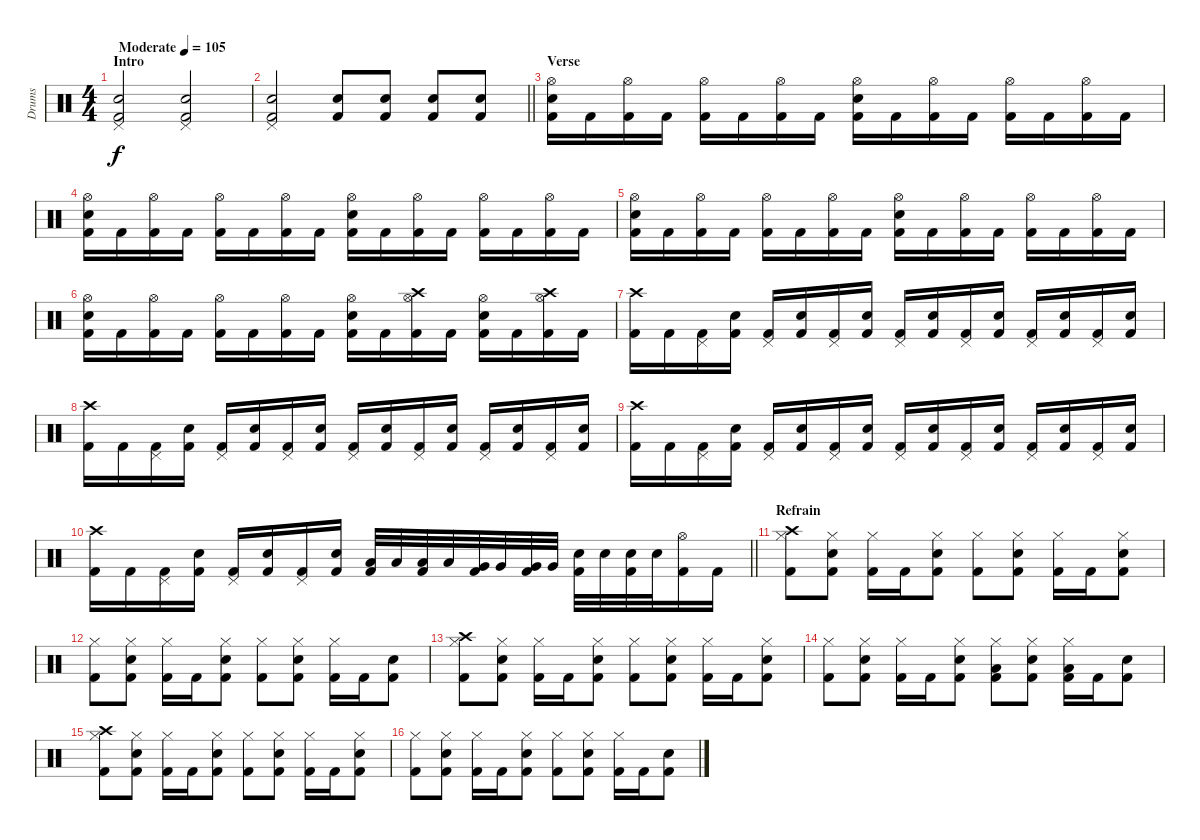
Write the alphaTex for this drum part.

\track ("Drums" "Drums") {instrument percussion}
\staff {score}
\articulation defaults
\ts (4 4)
\section ("" "Intro")
\tempo (105 "Moderate")
\clef neutral
\ks c
("Pedal Hi-Hat (hit)" "Snare (hit) 2" "Kick (hit) 2").2{dy f} ("Pedal Hi-Hat (hit)" "Snare (hit) 2" "Kick (hit) 2").2 |
\barLineRight lightlight
("Pedal Hi-Hat (hit)" "Snare (hit) 2" "Kick (hit) 2").2 ("Electric Snare (hit)" "Kick (hit) 2").8 ("Electric Snare (hit)" "Kick (hit) 2").8 ("Electric Snare (hit)" "Kick (hit) 2").8 ("Electric Snare (hit)" "Kick (hit) 2").8 |
\section ("" "Verse")
("Hi-Hat (open)" "Electric Snare (hit)" "Kick (hit) 2").16 "Kick (hit) 2".16 ("Hi-Hat (open)" "Kick (hit) 2").16 "Kick (hit) 2".16 ("Hi-Hat (open)" "Kick (hit) 2").16 "Kick (hit) 2".16 ("Hi-Hat (open)" "Kick (hit) 2").16 "Kick (hit) 2".16 ("Hi-Hat (open)" "Electric Snare (hit)" "Kick (hit) 2").16 "Kick (hit) 2".16 ("Hi-Hat (open)" "Kick (hit) 2").16 "Kick (hit) 2".16 ("Hi-Hat (open)" "Kick (hit) 2").16 "Kick (hit) 2".16 ("Hi-Hat (open)" "Kick (hit) 2").16 "Kick (hit) 2".16 |
("Hi-Hat (open)" "Electric Snare (hit)" "Kick (hit) 2").16 "Kick (hit) 2".16 ("Hi-Hat (open)" "Kick (hit) 2").16 "Kick (hit) 2".16 ("Hi-Hat (open)" "Kick (hit) 2").16 "Kick (hit) 2".16 ("Hi-Hat (open)" "Kick (hit) 2").16 "Kick (hit) 2".16 ("Hi-Hat (open)" "Electric Snare (hit)" "Kick (hit) 2").16 "Kick (hit) 2".16 ("Hi-Hat (open)" "Kick (hit) 2").16 "Kick (hit) 2".16 ("Hi-Hat (open)" "Kick (hit) 2").16 "Kick (hit) 2".16 ("Hi-Hat (open)" "Kick (hit) 2").16 "Kick (hit) 2".16 |
("Hi-Hat (open)" "Electric Snare (hit)" "Kick (hit) 2").16 "Kick (hit) 2".16 ("Hi-Hat (open)" "Kick (hit) 2").16 "Kick (hit) 2".16 ("Hi-Hat (open)" "Kick (hit) 2").16 "Kick (hit) 2".16 ("Hi-Hat (open)" "Kick (hit) 2").16 "Kick (hit) 2".16 ("Hi-Hat (open)" "Electric Snare (hit)" "Kick (hit) 2").16 "Kick (hit) 2".16 ("Hi-Hat (open)" "Kick (hit) 2").16 "Kick (hit) 2".16 ("Hi-Hat (open)" "Kick (hit) 2").16 "Kick (hit) 2".16 ("Hi-Hat (open)" "Kick (hit) 2").16 "Kick (hit) 2".16 |
("Hi-Hat (open)" "Electric Snare (hit)" "Kick (hit) 2").16 "Kick (hit) 2".16 ("Hi-Hat (open)" "Kick (hit) 2").16 "Kick (hit) 2".16 ("Hi-Hat (open)" "Kick (hit) 2").16 "Kick (hit) 2".16 ("Hi-Hat (open)" "Kick (hit) 2").16 "Kick (hit) 2".16 ("Hi-Hat (open)" "Electric Snare (hit)" "Kick (hit) 2").16 "Kick (hit) 2".16 ("Hi-Hat (open)" "Crash high (hit)" "Kick (hit) 2").16 "Kick (hit) 2".16 ("Hi-Hat (open)" "Electric Snare (hit)" "Kick (hit) 2").16 "Kick (hit) 2".16 ("Hi-Hat (open)" "Crash high (hit)" "Kick (hit) 2").16 "Kick (hit) 2".16 |
("Crash high (hit)" "Kick (hit) 2").16 "Kick (hit) 2".16 ("Pedal Hi-Hat (hit)" "Kick (hit) 2").16 ("Electric Snare (hit)" "Kick (hit) 2").16 ("Pedal Hi-Hat (hit)" "Kick (hit) 2").16 ("Electric Snare (hit)" "Kick (hit) 2").16 ("Pedal Hi-Hat (hit)" "Kick (hit) 2").16 ("Electric Snare (hit)" "Kick (hit) 2").16 ("Pedal Hi-Hat (hit)" "Kick (hit) 2").16 ("Electric Snare (hit)" "Kick (hit) 2").16 ("Pedal Hi-Hat (hit)" "Kick (hit) 2").16 ("Electric Snare (hit)" "Kick (hit) 2").16 ("Pedal Hi-Hat (hit)" "Kick (hit) 2").16 ("Electric Snare (hit)" "Kick (hit) 2").16 ("Pedal Hi-Hat (hit)" "Kick (hit) 2").16 ("Electric Snare (hit)" "Kick (hit) 2").16 |
("Crash high (hit)" "Kick (hit) 2").16 "Kick (hit) 2".16 ("Pedal Hi-Hat (hit)" "Kick (hit) 2").16 ("Electric Snare (hit)" "Kick (hit) 2").16 ("Pedal Hi-Hat (hit)" "Kick (hit) 2").16 ("Electric Snare (hit)" "Kick (hit) 2").16 ("Pedal Hi-Hat (hit)" "Kick (hit) 2").16 ("Electric Snare (hit)" "Kick (hit) 2").16 ("Pedal Hi-Hat (hit)" "Kick (hit) 2").16 ("Electric Snare (hit)" "Kick (hit) 2").16 ("Pedal Hi-Hat (hit)" "Kick (hit) 2").16 ("Electric Snare (hit)" "Kick (hit) 2").16 ("Pedal Hi-Hat (hit)" "Kick (hit) 2").16 ("Electric Snare (hit)" "Kick (hit) 2").16 ("Pedal Hi-Hat (hit)" "Kick (hit) 2").16 ("Electric Snare (hit)" "Kick (hit) 2").16 |
("Crash high (hit)" "Kick (hit) 2").16 "Kick (hit) 2".16 ("Pedal Hi-Hat (hit)" "Kick (hit) 2").16 ("Electric Snare (hit)" "Kick (hit) 2").16 ("Pedal Hi-Hat (hit)" "Kick (hit) 2").16 ("Electric Snare (hit)" "Kick (hit) 2").16 ("Pedal Hi-Hat (hit)" "Kick (hit) 2").16 ("Electric Snare (hit)" "Kick (hit) 2").16 ("Pedal Hi-Hat (hit)" "Kick (hit) 2").16 ("Electric Snare (hit)" "Kick (hit) 2").16 ("Pedal Hi-Hat (hit)" "Kick (hit) 2").16 ("Electric Snare (hit)" "Kick (hit) 2").16 ("Pedal Hi-Hat (hit)" "Kick (hit) 2").16 ("Electric Snare (hit)" "Kick (hit) 2").16 ("Pedal Hi-Hat (hit)" "Kick (hit) 2").16 ("Electric Snare (hit)" "Kick (hit) 2").16 |
\barLineRight lightlight
("Crash high (hit)" "Kick (hit) 2").16 "Kick (hit) 2".16 ("Pedal Hi-Hat (hit)" "Kick (hit) 2").16 ("Electric Snare (hit)" "Kick (hit) 2").16 ("Pedal Hi-Hat (hit)" "Kick (hit) 2").16 ("Electric Snare (hit)" "Kick (hit) 2").16 ("Pedal Hi-Hat (hit)" "Kick (hit) 2").16 ("Electric Snare (hit)" "Kick (hit) 2").16 ("Low Tom (hit)" "Kick (hit) 2").32 "Low Tom (hit)".32 ("Low Tom (hit)" "Kick (hit) 2").32 "Low Tom (hit)".32 ("Very Low Tom (hit)" "Kick (hit) 2").32 "Very Low Tom (hit)".32 ("Very Low Tom (hit)" "Kick (hit) 2").32 "Very Low Tom (hit)".32 ("Electric Snare (hit)" "Kick (hit) 2").32 "Electric Snare (hit)".32 ("Electric Snare (hit)" "Kick (hit) 2").32 "Electric Snare (hit)".32 ("Hi-Hat (open)" "Kick (hit) 2").16 "Kick (hit) 2".16 |
\section ("" "Refrain")
("Hi-Hat (closed)" "Crash high (hit)" "Kick (hit) 2").8 ("Hi-Hat (closed)" "Electric Snare (hit)" "Kick (hit) 2").8 ("Hi-Hat (closed)" "Kick (hit) 2").16 "Kick (hit) 2".16 ("Hi-Hat (closed)" "Electric Snare (hit)" "Kick (hit) 2").8 ("Hi-Hat (closed)" "Kick (hit) 2").8 ("Hi-Hat (closed)" "Electric Snare (hit)" "Kick (hit) 2").8 ("Hi-Hat (closed)" "Kick (hit) 2").16 "Kick (hit) 2".16 ("Hi-Hat (closed)" "Electric Snare (hit)" "Kick (hit) 2").8 |
("Hi-Hat (closed)" "Kick (hit) 2").8 ("Hi-Hat (closed)" "Electric Snare (hit)" "Kick (hit) 2").8 ("Hi-Hat (closed)" "Kick (hit) 2").16 "Kick (hit) 2".16 ("Hi-Hat (closed)" "Electric Snare (hit)" "Kick (hit) 2").8 ("Hi-Hat (closed)" "Kick (hit) 2").8 ("Hi-Hat (closed)" "Electric Snare (hit)" "Kick (hit) 2").8 ("Hi-Hat (closed)" "Kick (hit) 2").16 "Kick (hit) 2".16 ("Electric Snare (hit)" "Kick (hit) 2").8 |
("Hi-Hat (closed)" "Crash high (hit)" "Kick (hit) 2").8 ("Hi-Hat (closed)" "Electric Snare (hit)" "Kick (hit) 2").8 ("Hi-Hat (closed)" "Kick (hit) 2").16 "Kick (hit) 2".16 ("Hi-Hat (closed)" "Electric Snare (hit)" "Kick (hit) 2").8 ("Hi-Hat (closed)" "Kick (hit) 2").8 ("Hi-Hat (closed)" "Electric Snare (hit)" "Kick (hit) 2").8 ("Hi-Hat (closed)" "Kick (hit) 2").16 "Kick (hit) 2".16 ("Hi-Hat (closed)" "Electric Snare (hit)" "Kick (hit) 2").8 |
("Hi-Hat (closed)" "Kick (hit) 2").8 ("Hi-Hat (closed)" "Electric Snare (hit)" "Kick (hit) 2").8 ("Hi-Hat (closed)" "Kick (hit) 2").16 "Kick (hit) 2".16 ("Hi-Hat (closed)" "Electric Snare (hit)" "Kick (hit) 2").8 ("Hi-Hat (closed)" "Low Tom (hit)" "Kick (hit) 2").8 ("Hi-Hat (closed)" "Electric Snare (hit)" "Kick (hit) 2").8 ("Hi-Hat (closed)" "Low Tom (hit)" "Kick (hit) 2").16 "Kick (hit) 2".16 ("Electric Snare (hit)" "Kick (hit) 2").8 |
("Hi-Hat (closed)" "Crash high (hit)" "Kick (hit) 2").8 ("Hi-Hat (closed)" "Electric Snare (hit)" "Kick (hit) 2").8 ("Hi-Hat (closed)" "Kick (hit) 2").16 "Kick (hit) 2".16 ("Hi-Hat (closed)" "Electric Snare (hit)" "Kick (hit) 2").8 ("Hi-Hat (closed)" "Kick (hit) 2").8 ("Hi-Hat (closed)" "Electric Snare (hit)" "Kick (hit) 2").8 ("Hi-Hat (closed)" "Kick (hit) 2").16 "Kick (hit) 2".16 ("Hi-Hat (closed)" "Electric Snare (hit)" "Kick (hit) 2").8 |
("Hi-Hat (closed)" "Kick (hit) 2").8 ("Hi-Hat (closed)" "Electric Snare (hit)" "Kick (hit) 2").8 ("Hi-Hat (closed)" "Kick (hit) 2").16 "Kick (hit) 2".16 ("Hi-Hat (closed)" "Electric Snare (hit)" "Kick (hit) 2").8 ("Hi-Hat (closed)" "Kick (hit) 2").8 ("Hi-Hat (closed)" "Electric Snare (hit)" "Kick (hit) 2").8 ("Hi-Hat (closed)" "Kick (hit) 2").16 "Kick (hit) 2".16 ("Electric Snare (hit)" "Kick (hit) 2").8
